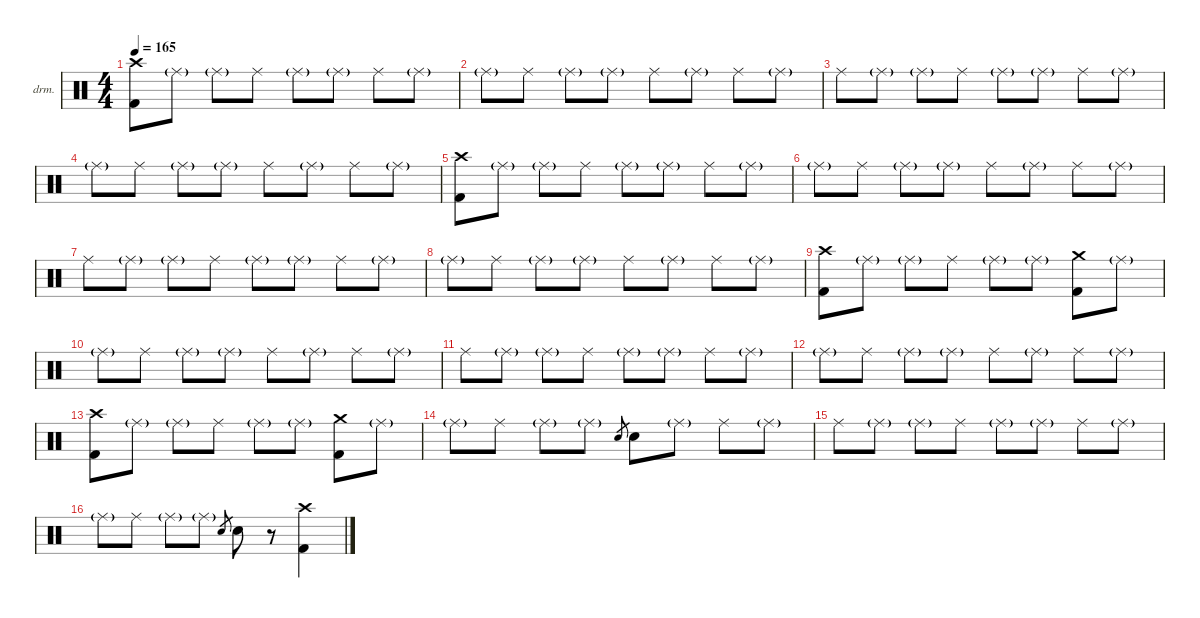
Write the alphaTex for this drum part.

\defaultSystemsLayout 4
\hideDynamics
\bracketExtendMode nobrackets
\firstSystemTrackNameOrientation horizontal
\otherSystemsTrackNameOrientation horizontal
\track ("Marty Chapman (Drums)" "drm.") {instrument percussion}
\staff {score}
\articulation defaults
\ts (4 4)
\tempo 165
\clef neutral
\ks c
("Crash high (hit)" "Kick (hit) 2").8{dy f beam Down} "Ride (middle)"{g}.8{beam Down} "Ride (middle)"{g}.8{beam Down} "Ride (middle)".8{beam Down} "Ride (middle)"{g}.8{beam Down} "Ride (middle)"{g}.8{beam Down} "Ride (middle)".8{beam Down} "Ride (middle)"{g}.8{beam Down} |
"Ride (middle)"{g}.8{beam Down} "Ride (middle)".8{beam Down} "Ride (middle)"{g}.8{beam Down} "Ride (middle)"{g}.8{beam Down} "Ride (middle)".8{beam Down} "Ride (middle)"{g}.8{beam Down} "Ride (middle)".8{beam Down} "Ride (middle)"{g}.8{beam Down} |
"Ride (middle)".8{beam Down} "Ride (middle)"{g}.8{beam Down} "Ride (middle)"{g}.8{beam Down} "Ride (middle)".8{beam Down} "Ride (middle)"{g}.8{beam Down} "Ride (middle)"{g}.8{beam Down} "Ride (middle)".8{beam Down} "Ride (middle)"{g}.8{beam Down} |
"Ride (middle)"{g}.8{beam Down} "Ride (middle)".8{beam Down} "Ride (middle)"{g}.8{beam Down} "Ride (middle)"{g}.8{beam Down} "Ride (middle)".8{beam Down} "Ride (middle)"{g}.8{beam Down} "Ride (middle)".8{beam Down} "Ride (middle)"{g}.8{beam Down} |
("Crash high (hit)" "Kick (hit) 2").8{beam Down} "Ride (middle)"{g}.8{beam Down} "Ride (middle)"{g}.8{beam Down} "Ride (middle)".8{beam Down} "Ride (middle)"{g}.8{beam Down} "Ride (middle)"{g}.8{beam Down} "Ride (middle)".8{beam Down} "Ride (middle)"{g}.8{beam Down} |
"Ride (middle)"{g}.8{beam Down} "Ride (middle)".8{beam Down} "Ride (middle)"{g}.8{beam Down} "Ride (middle)"{g}.8{beam Down} "Ride (middle)".8{beam Down} "Ride (middle)"{g}.8{beam Down} "Ride (middle)".8{beam Down} "Ride (middle)"{g}.8{beam Down} |
"Ride (middle)".8{beam Down} "Ride (middle)"{g}.8{beam Down} "Ride (middle)"{g}.8{beam Down} "Ride (middle)".8{beam Down} "Ride (middle)"{g}.8{beam Down} "Ride (middle)"{g}.8{beam Down} "Ride (middle)".8{beam Down} "Ride (middle)"{g}.8{beam Down} |
"Ride (middle)"{g}.8{beam Down} "Ride (middle)".8{beam Down} "Ride (middle)"{g}.8{beam Down} "Ride (middle)"{g}.8{beam Down} "Ride (middle)".8{beam Down} "Ride (middle)"{g}.8{beam Down} "Ride (middle)".8{beam Down} "Ride (middle)"{g}.8{beam Down} |
("Crash high (hit)" "Kick (hit) 2").8{beam Down} "Ride (middle)"{g}.8{beam Down} "Ride (middle)"{g}.8{beam Down} "Ride (middle)".8{beam Down} "Ride (middle)"{g}.8{beam Down} "Ride (middle)"{g}.8{beam Down} ("Crash medium (hit)" "Kick (hit) 2").8{beam Down} "Ride (middle)"{g}.8{beam Down} |
"Ride (middle)"{g}.8{beam Down} "Ride (middle)".8{beam Down} "Ride (middle)"{g}.8{beam Down} "Ride (middle)"{g}.8{beam Down} "Ride (middle)".8{beam Down} "Ride (middle)"{g}.8{beam Down} "Ride (middle)".8{beam Down} "Ride (middle)"{g}.8{beam Down} |
"Ride (middle)".8{beam Down} "Ride (middle)"{g}.8{beam Down} "Ride (middle)"{g}.8{beam Down} "Ride (middle)".8{beam Down} "Ride (middle)"{g}.8{beam Down} "Ride (middle)"{g}.8{beam Down} "Ride (middle)".8{beam Down} "Ride (middle)"{g}.8{beam Down} |
"Ride (middle)"{g}.8{beam Down} "Ride (middle)".8{beam Down} "Ride (middle)"{g}.8{beam Down} "Ride (middle)"{g}.8{beam Down} "Ride (middle)".8{beam Down} "Ride (middle)"{g}.8{beam Down} "Ride (middle)".8{beam Down} "Ride (middle)"{g}.8{beam Down} |
("Crash high (hit)" "Kick (hit) 2").8{beam Down} "Ride (middle)"{g}.8{beam Down} "Ride (middle)"{g}.8{beam Down} "Ride (middle)".8{beam Down} "Ride (middle)"{g}.8{beam Down} "Ride (middle)"{g}.8{beam Down} ("Crash medium (hit)" "Kick (hit) 2").8{beam Down} "Ride (middle)"{g}.8{beam Down} |
"Ride (middle)"{g}.8{beam Down} "Ride (middle)".8{beam Down} "Ride (middle)"{g}.8{beam Down} "Ride (middle)"{g}.8{beam Down} "Electric Snare (hit)".8{gr dy mf beam Up} "Snare (hit) 2".8{dy f beam Down} "Ride (middle)"{g}.8{beam Down} "Ride (middle)".8{beam Down} "Ride (middle)"{g}.8{beam Down} |
"Ride (middle)".8{beam Down} "Ride (middle)"{g}.8{beam Down} "Ride (middle)"{g}.8{beam Down} "Ride (middle)".8{beam Down} "Ride (middle)"{g}.8{beam Down} "Ride (middle)"{g}.8{beam Down} "Ride (middle)".8{beam Down} "Ride (middle)"{g}.8{beam Down} |
"Ride (middle)"{g}.8{beam Down} "Ride (middle)".8{beam Down} "Ride (middle)"{g}.8{beam Down} "Ride (middle)"{g}.8{beam Down} "Electric Snare (hit)".8{gr dy mf beam Up} "Snare (hit) 2".8{dy f beam Down} r.8{beam Down} ("Crash high (hit)" "Kick (hit) 2").4{beam Down}
